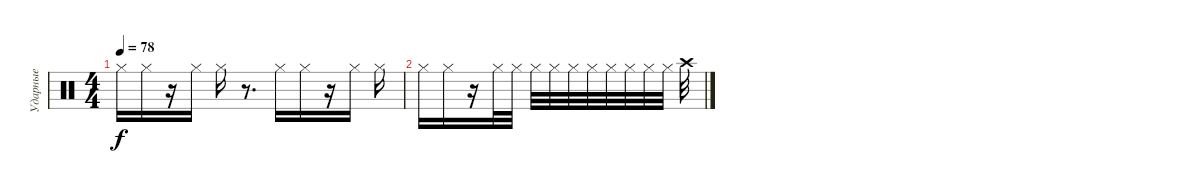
\track ("Ударные" "Ударные") {instrument percussion}
\staff {score}
\articulation defaults
\ts (4 4)
\tempo 78
\clef neutral
\ks c "Hi-Hat (closed)".16{dy f} "Hi-Hat (closed)".16
r.16 "Hi-Hat (closed)".16 "Hi-Hat (closed)".16 r.8{d} "Hi-Hat (closed)".16 "Hi-Hat (closed)".16 r.16 "Hi-Hat (closed)".16 "Hi-Hat (closed)".16 |
"Hi-Hat (closed)".16 "Hi-Hat (closed)".16 r.16 "Hi-Hat (closed)".32 "Hi-Hat (closed)".32 "Hi-Hat (closed)".32 "Hi-Hat (closed)".32 "Hi-Hat (closed)".32 "Hi-Hat (closed)".32 "Hi-Hat (closed)".32 "Hi-Hat (closed)".32 "Hi-Hat (closed)".32 "Hi-Hat (closed)".32 "Crash high (hit)".32
